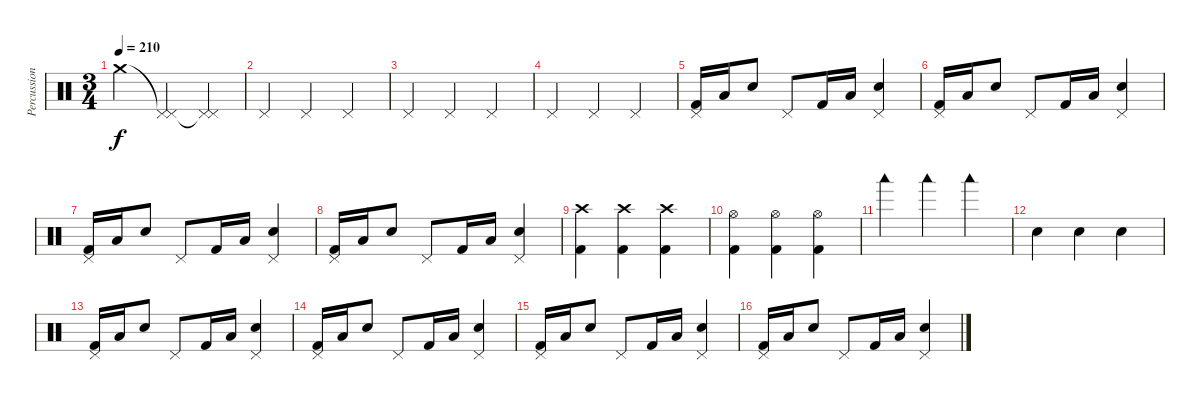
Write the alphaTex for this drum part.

\track ("Percussion" "Percussion") {instrument percussion}
\staff
\articulation defaults
\ts (3 4)
\tempo 210
\clef neutral
\ks c "Crash medium (hit)".4{dy f}
("Pedal Hi-Hat (hit)"{t} "Pedal Hi-Hat (hit)").4 ("Pedal Hi-Hat (hit)"{t} "Pedal Hi-Hat (hit)").4 |
"Pedal Hi-Hat (hit)".4 "Pedal Hi-Hat (hit)".4 "Pedal Hi-Hat (hit)".4 |
"Pedal Hi-Hat (hit)".4 "Pedal Hi-Hat (hit)".4 "Pedal Hi-Hat (hit)".4 |
"Pedal Hi-Hat (hit)".4 "Pedal Hi-Hat (hit)".4 "Pedal Hi-Hat (hit)".4 |
("Pedal Hi-Hat (hit)" "Kick (hit) 2").16 "Low Floor Tom (hit)".16 "Electric Snare (hit)".8 "Pedal Hi-Hat (hit)".8 "Kick (hit) 2".16 "Low Floor Tom (hit)".16 ("Pedal Hi-Hat (hit)" "Electric Snare (hit)").4 |
("Pedal Hi-Hat (hit)" "Kick (hit) 2").16 "Low Floor Tom (hit)".16 "Electric Snare (hit)".8 "Pedal Hi-Hat (hit)".8 "Kick (hit) 2".16 "Low Floor Tom (hit)".16 ("Pedal Hi-Hat (hit)" "Electric Snare (hit)").4 |
("Pedal Hi-Hat (hit)" "Kick (hit) 2").16 "Low Floor Tom (hit)".16 "Electric Snare (hit)".8 "Pedal Hi-Hat (hit)".8 "Kick (hit) 2".16 "Low Floor Tom (hit)".16 ("Pedal Hi-Hat (hit)" "Electric Snare (hit)").4 |
("Pedal Hi-Hat (hit)" "Kick (hit) 2").16 "Low Floor Tom (hit)".16 "Electric Snare (hit)".8 "Pedal Hi-Hat (hit)".8 "Kick (hit) 2".16 "Low Floor Tom (hit)".16 ("Pedal Hi-Hat (hit)" "Electric Snare (hit)").4 |
("Crash high (hit)" "Kick (hit) 2").4 ("Crash high (hit)" "Kick (hit) 2").4 ("Crash high (hit)" "Kick (hit) 2").4 |
("Hi-Hat (open)" "Kick (hit) 2").4 ("Hi-Hat (open)" "Kick (hit) 2").4 ("Hi-Hat (open)" "Kick (hit) 2").4 |
"Woodblock low (hit)".4 "Woodblock low (hit)".4 "Woodblock low (hit)".4 |
"Electric Snare (hit)".4 "Electric Snare (hit)".4 "Electric Snare (hit)".4 |
("Pedal Hi-Hat (hit)" "Kick (hit) 2").16 "Low Floor Tom (hit)".16 "Electric Snare (hit)".8 "Pedal Hi-Hat (hit)".8 "Kick (hit) 2".16 "Low Floor Tom (hit)".16 ("Pedal Hi-Hat (hit)" "Electric Snare (hit)").4 |
("Pedal Hi-Hat (hit)" "Kick (hit) 2").16 "Low Floor Tom (hit)".16 "Electric Snare (hit)".8 "Pedal Hi-Hat (hit)".8 "Kick (hit) 2".16 "Low Floor Tom (hit)".16 ("Pedal Hi-Hat (hit)" "Electric Snare (hit)").4 |
("Pedal Hi-Hat (hit)" "Kick (hit) 2").16 "Low Floor Tom (hit)".16 "Electric Snare (hit)".8 "Pedal Hi-Hat (hit)".8 "Kick (hit) 2".16 "Low Floor Tom (hit)".16 ("Pedal Hi-Hat (hit)" "Electric Snare (hit)").4 |
("Pedal Hi-Hat (hit)" "Kick (hit) 2").16 "Low Floor Tom (hit)".16 "Electric Snare (hit)".8 "Pedal Hi-Hat (hit)".8 "Kick (hit) 2".16 "Low Floor Tom (hit)".16 ("Pedal Hi-Hat (hit)" "Electric Snare (hit)").4
